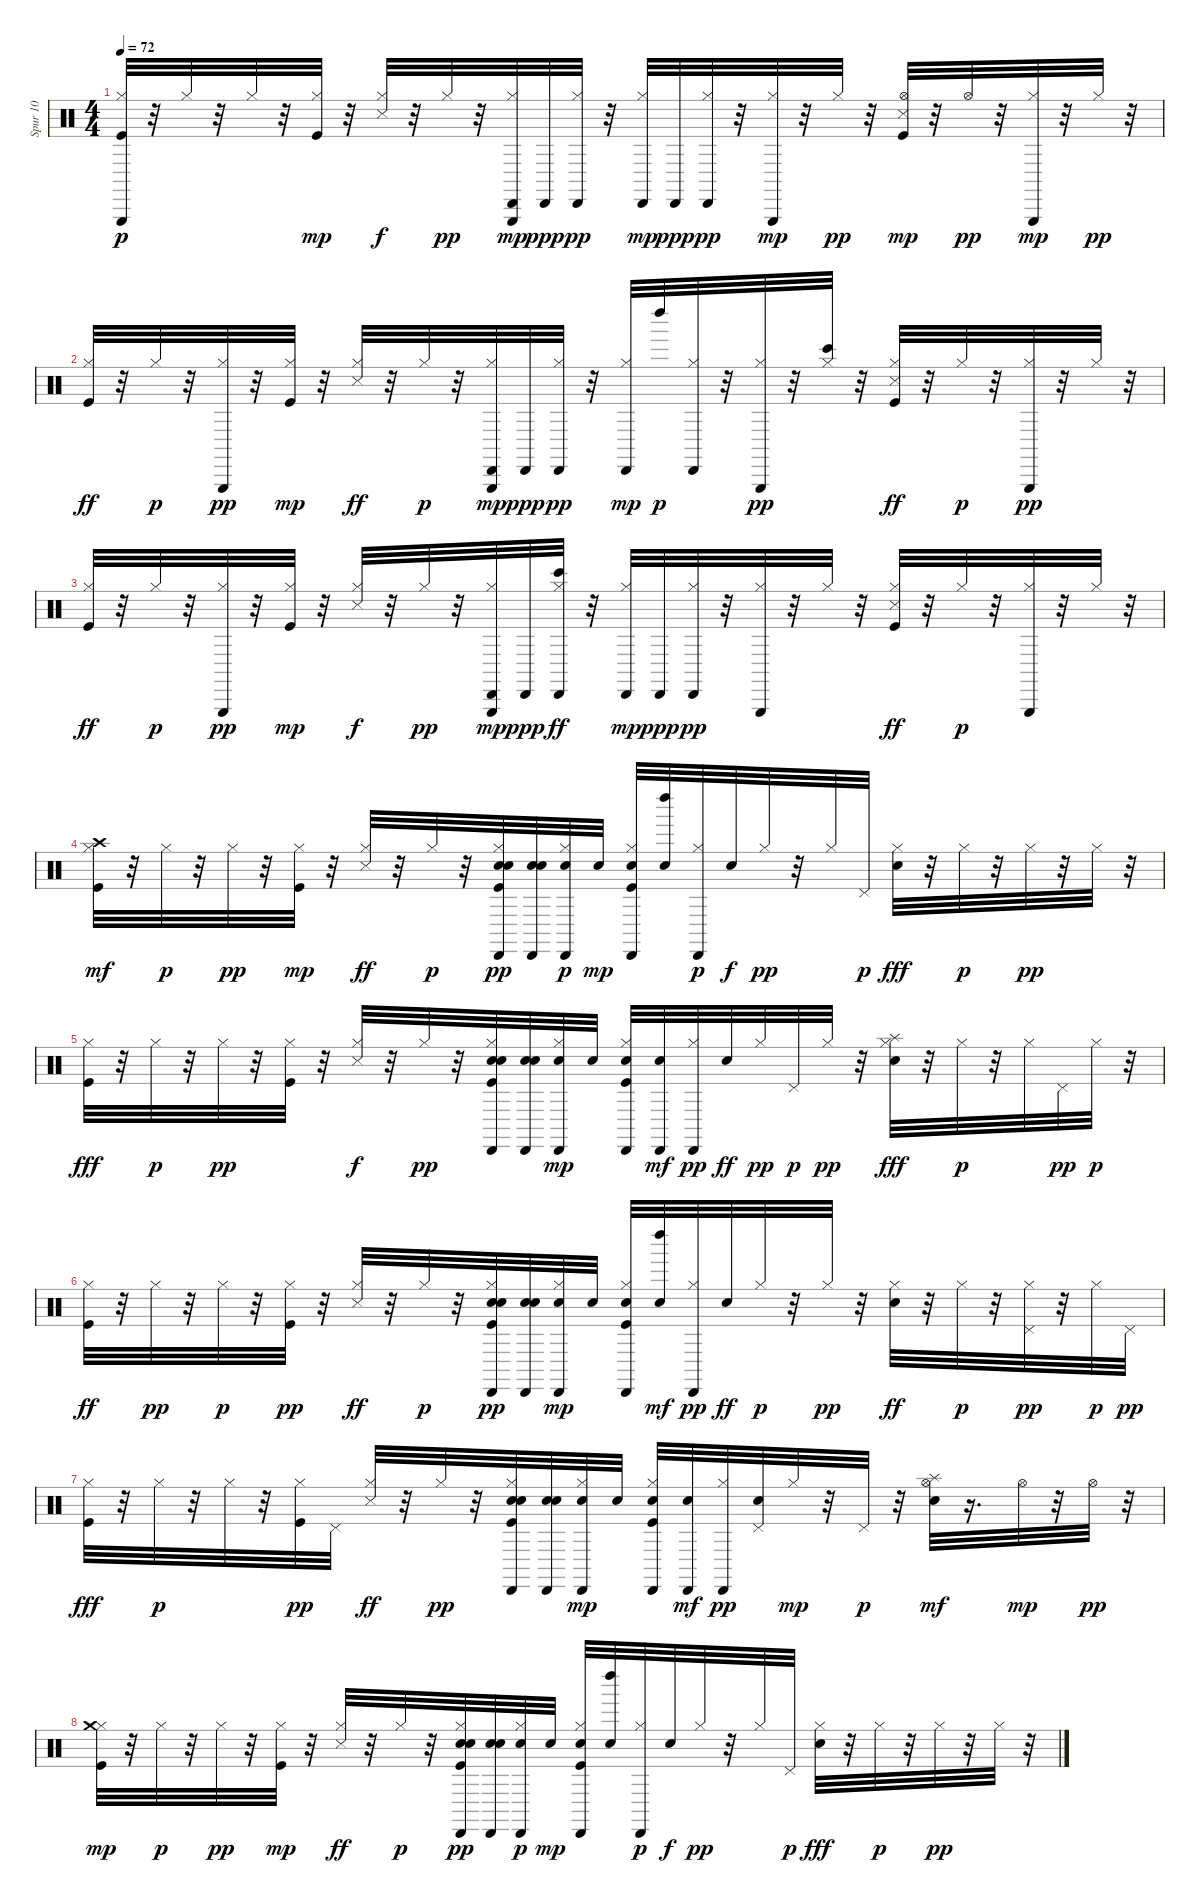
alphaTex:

\track ("Spur 10" "Spur 10") {instrument percussion}
\staff {score}
\articulation defaults
\ts (4 4)
\tempo 72
\clef neutral
\ks c
("Kick (hit)" "Hi-Hat (closed)" "Triangle (hit)").32{dy p} r.32 "Hi-Hat (closed)".32 r.32 "Hi-Hat (closed)".32 r.32 ("Hi-Hat (closed)" "Kick (hit)").32{dy mp} r.32 ("Hi-Hat (closed)" "Snare (side stick) 3").32{dy f} r.32 "Hi-Hat (closed)".32{dy pp} r.32 ("Triangle (hit)" "Hi-Hat (closed)" "Cabasa (hit)").32{dy mp} "Cabasa (hit)".32{dy ppp} ("Hi-Hat (closed)" "Cabasa (hit)").32{dy pp} r.32 ("Hi-Hat (closed)" "Cabasa (hit)").32{dy mp} "Cabasa (hit)".32{dy ppp} ("Cabasa (hit)" "Hi-Hat (closed)").32{dy pp} r.32 ("Triangle (hit)" "Hi-Hat (closed)").32{dy mp} r.32 "Hi-Hat (closed)".32{dy pp} r.32 ("Snare (side stick) 3" "Kick (hit)" "Hi-Hat (open)").32{dy mp} r.32 "Hi-Hat (open)".32{dy pp} r.32 ("Triangle (hit)" "Hi-Hat (closed)").32{dy mp} r.32 "Hi-Hat (closed)".32{dy pp} r.32 |
("Kick (hit)" "Hi-Hat (closed)").32{dy ff} r.32 "Hi-Hat (closed)".32{dy p} r.32 ("Triangle (hit)" "Hi-Hat (closed)").32{dy pp} r.32 ("Hi-Hat (closed)" "Kick (hit)").32{dy mp} r.32 ("Snare (side stick) 3" "Hi-Hat (closed)").32{dy ff} r.32 "Hi-Hat (closed)".32{dy p} r.32 ("Triangle (hit)" "Hi-Hat (closed)" "Cabasa (hit)").32{dy mp} "Cabasa (hit)".32{dy ppp} ("Hi-Hat (closed)" "Cabasa (hit)").32{dy pp} r.32 ("Cabasa (hit)" "Hi-Hat (closed)").32{dy mp} "Left Maraca (hit)".32{dy p} ("Cabasa (hit)" "Hi-Hat (closed)").32 r.32 ("Triangle (hit)" "Hi-Hat (closed)").32{dy pp} r.32 ("Bongo High (hit)" "Hi-Hat (closed)").32 r.32 ("Snare (side stick) 3" "Kick (hit)" "Hi-Hat (closed)").32{dy ff} r.32 "Hi-Hat (closed)".32{dy p} r.32 ("Triangle (hit)" "Hi-Hat (closed)").32{dy pp} r.32 "Hi-Hat (closed)".32 r.32 |
("Kick (hit)" "Hi-Hat (closed)").32{dy ff} r.32 "Hi-Hat (closed)".32{dy p} r.32 ("Triangle (hit)" "Hi-Hat (closed)").32{dy pp} r.32 ("Hi-Hat (closed)" "Kick (hit)").32{dy mp} r.32 ("Snare (side stick) 3" "Hi-Hat (closed)").32{dy f} r.32 "Hi-Hat (closed)".32{dy pp} r.32 ("Hi-Hat (closed)" "Triangle (hit)" "Cabasa (hit)").32{dy mp} "Cabasa (hit)".32{dy ppp} ("Hi-Hat (closed)" "Cabasa (hit)" "Bongo High (hit)").32{dy ff} r.32 ("Hi-Hat (closed)" "Cabasa (hit)").32{dy mp} "Cabasa (hit)".32{dy ppp} ("Cabasa (hit)" "Hi-Hat (closed)").32{dy pp} r.32 ("Triangle (hit)" "Hi-Hat (closed)").32 r.32 "Hi-Hat (closed)".32 r.32 ("Snare (side stick) 3" "Kick (hit)" "Hi-Hat (closed)").32{dy ff} r.32 "Hi-Hat (closed)".32{dy p} r.32 ("Triangle (hit)" "Hi-Hat (closed)").32 r.32 "Hi-Hat (closed)".32 r.32 |
("Kick (hit)" "Hi-Hat (closed)" "Crash high (hit)").32{dy mf} r.32 "Hi-Hat (closed)".32{dy p} r.32 "Hi-Hat (closed)".32{dy pp} r.32 ("Hi-Hat (closed)" "Kick (hit)").32{dy mp} r.32 ("Snare (side stick) 3" "Hi-Hat (closed)").32{dy ff} r.32 "Hi-Hat (closed)".32{dy p} r.32 ("Snare (hit) 2" "Kick (hit)" "Hi-Hat (closed)" "Cabasa (hit)" "Snare (hit) 2").32{dy pp} ("Cabasa (hit)" "Snare (hit) 2" "Snare (hit) 2").32 ("Hi-Hat (closed)" "Cabasa (hit)" "Snare (hit) 2").32{dy p} "Snare (hit) 2".32{dy mp} ("Snare (hit) 2" "Kick (hit)" "Cabasa (hit)" "Hi-Hat (closed)").32 ("Left Maraca (hit)" "Snare (hit) 2").32 ("Cabasa (hit)" "Hi-Hat (closed)").32{dy p} "Snare (hit) 2".32{dy f} "Hi-Hat (closed)".32{dy pp} r.32 "Hi-Hat (closed)".32 "Pedal Hi-Hat (hit)".32{dy p} ("Electric Snare (hit)" "Hi-Hat (closed)").32{dy fff} r.32 "Hi-Hat (closed)".32{dy p} r.32 "Hi-Hat (closed)".32{dy pp} r.32 "Hi-Hat (closed)".32 r.32 |
("Kick (hit)" "Hi-Hat (closed)").32{dy fff} r.32 "Hi-Hat (closed)".32{dy p} r.32 "Hi-Hat (closed)".32{dy pp} r.32 ("Kick (hit)" "Hi-Hat (closed)").32 r.32 ("Snare (side stick) 3" "Hi-Hat (closed)").32{dy f} r.32 "Hi-Hat (closed)".32{dy pp} r.32 ("Snare (hit) 2" "Kick (hit)" "Hi-Hat (closed)" "Cabasa (hit)" "Snare (hit) 2").32 ("Cabasa (hit)" "Snare (hit) 2" "Snare (hit) 2").32 ("Hi-Hat (closed)" "Cabasa (hit)" "Snare (hit) 2").32{dy mp} "Snare (hit) 2".32 ("Snare (hit) 2" "Kick (hit)" "Hi-Hat (closed)" "Cabasa (hit)").32 ("Cabasa (hit)" "Snare (hit) 2").32{dy mf} ("Cabasa (hit)" "Hi-Hat (closed)").32{dy pp} "Snare (hit) 2".32{dy ff} "Hi-Hat (closed)".32{dy pp} "Pedal Hi-Hat (hit)".32{dy p} "Hi-Hat (closed)".32{dy pp} r.32 ("Splash (hit)" "Electric Snare (hit)" "Hi-Hat (closed)").32{dy fff} r.32 "Hi-Hat (closed)".32{dy p} r.32 "Hi-Hat (closed)".32 "Pedal Hi-Hat (hit)".32{dy pp} "Hi-Hat (closed)".32{dy p} r.32 |
("Kick (hit)" "Hi-Hat (closed)").32{dy ff} r.32 "Hi-Hat (closed)".32{dy pp} r.32 "Hi-Hat (closed)".32{dy p} r.32 ("Kick (hit)" "Hi-Hat (closed)").32{dy pp} r.32 ("Hi-Hat (closed)" "Snare (side stick) 3").32{dy ff} r.32 "Hi-Hat (closed)".32{dy p} r.32 ("Snare (hit) 2" "Kick (hit)" "Hi-Hat (closed)" "Cabasa (hit)" "Snare (hit) 2").32{dy pp} ("Cabasa (hit)" "Snare (hit) 2" "Snare (hit) 2").32 ("Hi-Hat (closed)" "Cabasa (hit)" "Snare (hit) 2").32{dy mp} "Snare (hit) 2".32 ("Snare (hit) 2" "Kick (hit)" "Hi-Hat (closed)" "Cabasa (hit)").32 ("Left Maraca (hit)" "Snare (hit) 2").32{dy mf} ("Cabasa (hit)" "Hi-Hat (closed)").32{dy pp} "Snare (hit) 2".32{dy ff} "Hi-Hat (closed)".32{dy p} r.32 "Hi-Hat (closed)".32{dy pp} r.32 ("Electric Snare (hit)" "Hi-Hat (closed)").32{dy ff} r.32 "Hi-Hat (closed)".32{dy p} r.32 ("Hi-Hat (closed)" "Pedal Hi-Hat (hit)").32{dy pp} r.32 "Hi-Hat (closed)".32{dy p} "Pedal Hi-Hat (hit)".32{dy pp} |
("Kick (hit)" "Hi-Hat (closed)").32{dy fff} r.32 "Hi-Hat (closed)".32{dy p} r.32 "Hi-Hat (closed)".32 r.32 ("Kick (hit)" "Hi-Hat (closed)").32{dy pp} "Pedal Hi-Hat (hit)".32 ("Hi-Hat (closed)" "Snare (side stick) 3").32{dy ff} r.32 "Hi-Hat (closed)".32{dy pp} r.32 ("Snare (hit) 2" "Kick (hit)" "Hi-Hat (closed)" "Cabasa (hit)" "Snare (hit) 2").32 ("Cabasa (hit)" "Snare (hit) 2" "Snare (hit) 2").32 ("Hi-Hat (closed)" "Cabasa (hit)" "Snare (hit) 2").32{dy mp} "Snare (hit) 2".32 ("Snare (hit) 2" "Kick (hit)" "Hi-Hat (closed)" "Cabasa (hit)").32 ("Cabasa (hit)" "Snare (hit) 2").32{dy mf} ("Cabasa (hit)" "Hi-Hat (closed)").32{dy pp} ("Snare (hit) 2" "Pedal Hi-Hat (hit)").32 "Hi-Hat (closed)".32{dy mp} r.32 "Pedal Hi-Hat (hit)".32{dy p} r.32 ("Electric Snare (hit)" "Hi-Hat (open)" "Splash (hit)").32{dy mf} r.16{d} "Hi-Hat (open)".32{dy mp} r.32 "Hi-Hat (open)".32{dy pp} r.32 |
("Kick (hit)" "Hi-Hat (closed)" "Crash medium (hit)").32{dy mp} r.32 "Hi-Hat (closed)".32{dy p} r.32 "Hi-Hat (closed)".32{dy pp} r.32 ("Hi-Hat (closed)" "Kick (hit)").32{dy mp} r.32 ("Snare (side stick) 3" "Hi-Hat (closed)").32{dy ff} r.32 "Hi-Hat (closed)".32{dy p} r.32 ("Snare (hit) 2" "Kick (hit)" "Hi-Hat (closed)" "Cabasa (hit)" "Snare (hit) 2").32{dy pp} ("Cabasa (hit)" "Snare (hit) 2" "Snare (hit) 2").32 ("Hi-Hat (closed)" "Cabasa (hit)" "Snare (hit) 2").32{dy p} "Snare (hit) 2".32{dy mp} ("Snare (hit) 2" "Kick (hit)" "Cabasa (hit)" "Hi-Hat (closed)").32 ("Left Maraca (hit)" "Snare (hit) 2").32 ("Cabasa (hit)" "Hi-Hat (closed)").32{dy p} "Snare (hit) 2".32{dy f} "Hi-Hat (closed)".32{dy pp} r.32 "Hi-Hat (closed)".32 "Pedal Hi-Hat (hit)".32{dy p} ("Electric Snare (hit)" "Hi-Hat (closed)").32{dy fff} r.32 "Hi-Hat (closed)".32{dy p} r.32 "Hi-Hat (closed)".32{dy pp} r.32 "Hi-Hat (closed)".32 r.32
